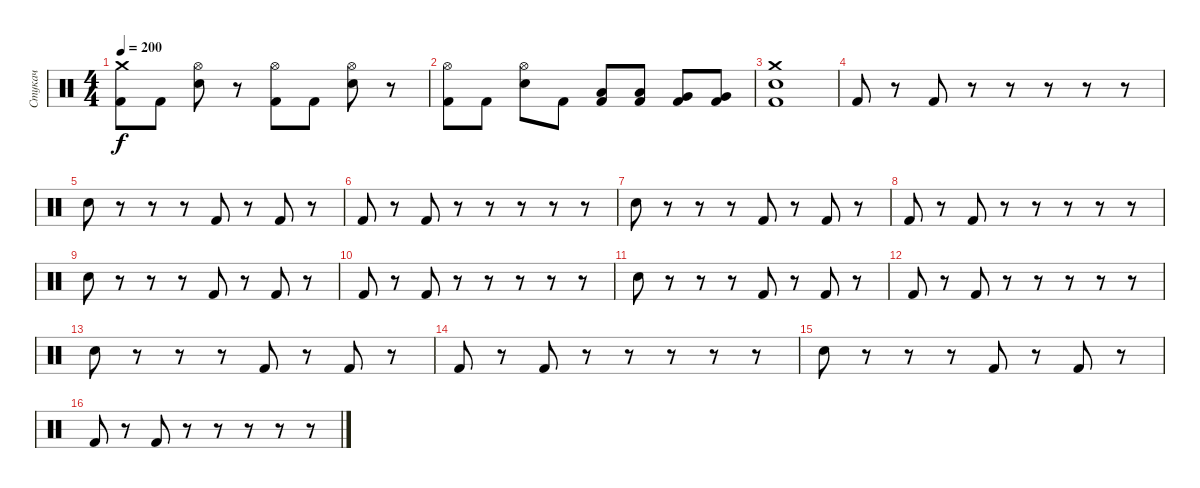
\track ("Стукач" "Стукач") {instrument percussion}
\staff {score}
\articulation defaults
\ts (4 4)
\tempo 200
\clef neutral
\ks c
("Crash medium (hit)" "Kick (hit) 2").8{dy f} "Kick (hit) 2".8 ("Hi-Hat (open)" "Electric Snare (hit)").8 r.8 ("Hi-Hat (open)" "Kick (hit) 2").8 "Kick (hit) 2".8 ("Hi-Hat (open)" "Electric Snare (hit)").8 r.8 |
("Hi-Hat (open)" "Kick (hit) 2").8 "Kick (hit) 2".8 ("Hi-Hat (open)" "Electric Snare (hit)").8 "Kick (hit) 2".8 ("Low Tom (hit)" "Kick (hit) 2").8 ("Low Tom (hit)" "Kick (hit) 2").8 ("Very Low Tom (hit)" "Kick (hit) 2").8 ("Very Low Tom (hit)" "Kick (hit) 2").8 |
("Crash medium (hit)" "Electric Snare (hit)" "Kick (hit) 2").1 |
"Kick (hit) 2".8 r.8 "Kick (hit) 2".8 r.8 r.8 r.8 r.8 r.8 |
"Electric Snare (hit)".8 r.8 r.8 r.8 "Kick (hit) 2".8 r.8 "Kick (hit) 2".8 r.8 |
"Kick (hit) 2".8 r.8 "Kick (hit) 2".8 r.8 r.8 r.8 r.8 r.8 |
"Electric Snare (hit)".8 r.8 r.8 r.8 "Kick (hit) 2".8 r.8 "Kick (hit) 2".8 r.8 |
"Kick (hit) 2".8 r.8 "Kick (hit) 2".8 r.8 r.8 r.8 r.8 r.8 |
"Electric Snare (hit)".8 r.8 r.8 r.8 "Kick (hit) 2".8 r.8 "Kick (hit) 2".8 r.8 |
"Kick (hit) 2".8 r.8 "Kick (hit) 2".8 r.8 r.8 r.8 r.8 r.8 |
"Electric Snare (hit)".8 r.8 r.8 r.8 "Kick (hit) 2".8 r.8 "Kick (hit) 2".8 r.8 |
"Kick (hit) 2".8 r.8 "Kick (hit) 2".8 r.8 r.8 r.8 r.8 r.8 |
"Electric Snare (hit)".8 r.8 r.8 r.8 "Kick (hit) 2".8 r.8 "Kick (hit) 2".8 r.8 |
"Kick (hit) 2".8 r.8 "Kick (hit) 2".8 r.8 r.8 r.8 r.8 r.8 |
"Electric Snare (hit)".8 r.8 r.8 r.8 "Kick (hit) 2".8 r.8 "Kick (hit) 2".8 r.8 |
"Kick (hit) 2".8 r.8 "Kick (hit) 2".8 r.8 r.8 r.8 r.8 r.8
